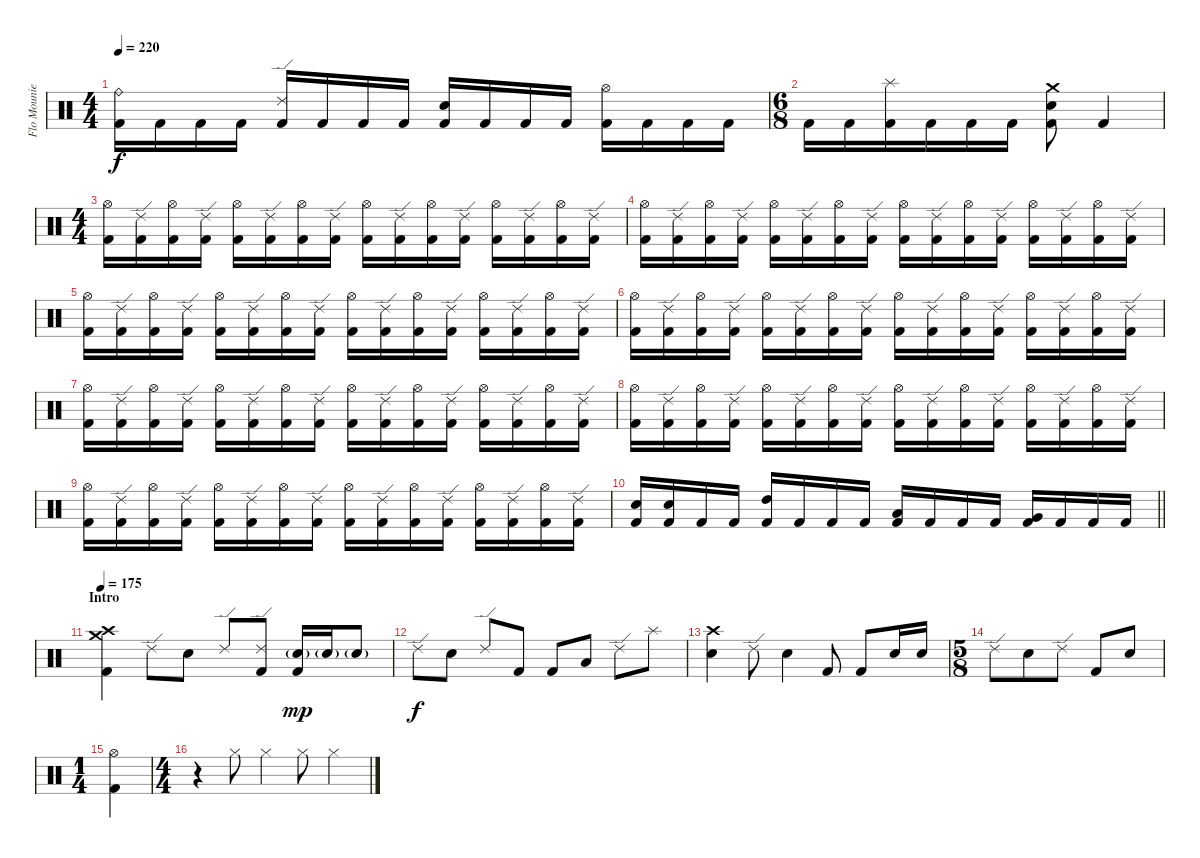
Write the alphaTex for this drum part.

\track ("Flo Mounier" "Flo Mounie") {instrument percussion}
\staff {score}
\articulation defaults
\ts (4 4)
\tempo 220
\clef neutral
\ks c
("Ride (bell)" "Kick (hit) 2").16{dy f} "Kick (hit) 2".16 "Kick (hit) 2".16 "Kick (hit) 2".16 ("Ride (edge) 2" "Kick (hit) 2").16 "Kick (hit) 2".16 "Kick (hit) 2".16 "Kick (hit) 2".16 ("Snare (hit) 2" "Kick (hit) 2").16 "Kick (hit) 2".16 "Kick (hit) 2".16 "Kick (hit) 2".16 ("Hi-Hat (open)" "Kick (hit) 2").16 "Kick (hit) 2".16 "Kick (hit) 2".16 "Kick (hit) 2".16 |
\ts (6 8)
"Kick (hit) 2".16 "Kick (hit) 2".16 ("Splash (hit)" "Kick (hit) 2").16 "Kick (hit) 2".16 "Kick (hit) 2".16 "Kick (hit) 2".16 ("Crash medium (hit)" "Snare (hit) 2" "Kick (hit) 2").8 "Kick (hit) 2".4 |
\ts (4 4)
("Hi-Hat (open)" "Kick (hit) 2").16 ("Ride (edge) 2" "Kick (hit) 2").16 ("Hi-Hat (open)" "Kick (hit) 2").16 ("Ride (edge) 2" "Kick (hit) 2").16 ("Hi-Hat (open)" "Kick (hit) 2").16 ("Ride (edge) 2" "Kick (hit) 2").16 ("Hi-Hat (open)" "Kick (hit) 2").16 ("Ride (edge) 2" "Kick (hit) 2").16 ("Hi-Hat (open)" "Kick (hit) 2").16 ("Ride (edge) 2" "Kick (hit) 2").16 ("Hi-Hat (open)" "Kick (hit) 2").16 ("Ride (edge) 2" "Kick (hit) 2").16 ("Hi-Hat (open)" "Kick (hit) 2").16 ("Ride (edge) 2" "Kick (hit) 2").16 ("Hi-Hat (open)" "Kick (hit) 2").16 ("Ride (edge) 2" "Kick (hit) 2").16 |
("Hi-Hat (open)" "Kick (hit) 2").16 ("Ride (edge) 2" "Kick (hit) 2").16 ("Hi-Hat (open)" "Kick (hit) 2").16 ("Ride (edge) 2" "Kick (hit) 2").16 ("Hi-Hat (open)" "Kick (hit) 2").16 ("Ride (edge) 2" "Kick (hit) 2").16 ("Hi-Hat (open)" "Kick (hit) 2").16 ("Ride (edge) 2" "Kick (hit) 2").16 ("Hi-Hat (open)" "Kick (hit) 2").16 ("Ride (edge) 2" "Kick (hit) 2").16 ("Hi-Hat (open)" "Kick (hit) 2").16 ("Ride (edge) 2" "Kick (hit) 2").16 ("Hi-Hat (open)" "Kick (hit) 2").16 ("Ride (edge) 2" "Kick (hit) 2").16 ("Hi-Hat (open)" "Kick (hit) 2").16 ("Ride (edge) 2" "Kick (hit) 2").16 |
("Hi-Hat (open)" "Kick (hit) 2").16 ("Ride (edge) 2" "Kick (hit) 2").16 ("Hi-Hat (open)" "Kick (hit) 2").16 ("Ride (edge) 2" "Kick (hit) 2").16 ("Hi-Hat (open)" "Kick (hit) 2").16 ("Ride (edge) 2" "Kick (hit) 2").16 ("Hi-Hat (open)" "Kick (hit) 2").16 ("Ride (edge) 2" "Kick (hit) 2").16 ("Hi-Hat (open)" "Kick (hit) 2").16 ("Ride (edge) 2" "Kick (hit) 2").16 ("Hi-Hat (open)" "Kick (hit) 2").16 ("Ride (edge) 2" "Kick (hit) 2").16 ("Hi-Hat (open)" "Kick (hit) 2").16 ("Ride (edge) 2" "Kick (hit) 2").16 ("Hi-Hat (open)" "Kick (hit) 2").16 ("Ride (edge) 2" "Kick (hit) 2").16 |
("Hi-Hat (open)" "Kick (hit) 2").16 ("Ride (edge) 2" "Kick (hit) 2").16 ("Hi-Hat (open)" "Kick (hit) 2").16 ("Ride (edge) 2" "Kick (hit) 2").16 ("Hi-Hat (open)" "Kick (hit) 2").16 ("Ride (edge) 2" "Kick (hit) 2").16 ("Hi-Hat (open)" "Kick (hit) 2").16 ("Ride (edge) 2" "Kick (hit) 2").16 ("Hi-Hat (open)" "Kick (hit) 2").16 ("Ride (edge) 2" "Kick (hit) 2").16 ("Hi-Hat (open)" "Kick (hit) 2").16 ("Ride (edge) 2" "Kick (hit) 2").16 ("Hi-Hat (open)" "Kick (hit) 2").16 ("Ride (edge) 2" "Kick (hit) 2").16 ("Hi-Hat (open)" "Kick (hit) 2").16 ("Ride (edge) 2" "Kick (hit) 2").16 |
("Hi-Hat (open)" "Kick (hit) 2").16 ("Ride (edge) 2" "Kick (hit) 2").16 ("Hi-Hat (open)" "Kick (hit) 2").16 ("Ride (edge) 2" "Kick (hit) 2").16 ("Hi-Hat (open)" "Kick (hit) 2").16 ("Ride (edge) 2" "Kick (hit) 2").16 ("Hi-Hat (open)" "Kick (hit) 2").16 ("Ride (edge) 2" "Kick (hit) 2").16 ("Hi-Hat (open)" "Kick (hit) 2").16 ("Ride (edge) 2" "Kick (hit) 2").16 ("Hi-Hat (open)" "Kick (hit) 2").16 ("Ride (edge) 2" "Kick (hit) 2").16 ("Hi-Hat (open)" "Kick (hit) 2").16 ("Ride (edge) 2" "Kick (hit) 2").16 ("Hi-Hat (open)" "Kick (hit) 2").16 ("Ride (edge) 2" "Kick (hit) 2").16 |
("Hi-Hat (open)" "Kick (hit) 2").16 ("Ride (edge) 2" "Kick (hit) 2").16 ("Hi-Hat (open)" "Kick (hit) 2").16 ("Ride (edge) 2" "Kick (hit) 2").16 ("Hi-Hat (open)" "Kick (hit) 2").16 ("Ride (edge) 2" "Kick (hit) 2").16 ("Hi-Hat (open)" "Kick (hit) 2").16 ("Ride (edge) 2" "Kick (hit) 2").16 ("Hi-Hat (open)" "Kick (hit) 2").16 ("Ride (edge) 2" "Kick (hit) 2").16 ("Hi-Hat (open)" "Kick (hit) 2").16 ("Ride (edge) 2" "Kick (hit) 2").16 ("Hi-Hat (open)" "Kick (hit) 2").16 ("Ride (edge) 2" "Kick (hit) 2").16 ("Hi-Hat (open)" "Kick (hit) 2").16 ("Ride (edge) 2" "Kick (hit) 2").16 |
("Hi-Hat (open)" "Kick (hit) 2").16 ("Ride (edge) 2" "Kick (hit) 2").16 ("Hi-Hat (open)" "Kick (hit) 2").16 ("Ride (edge) 2" "Kick (hit) 2").16 ("Hi-Hat (open)" "Kick (hit) 2").16 ("Ride (edge) 2" "Kick (hit) 2").16 ("Hi-Hat (open)" "Kick (hit) 2").16 ("Ride (edge) 2" "Kick (hit) 2").16 ("Hi-Hat (open)" "Kick (hit) 2").16 ("Ride (edge) 2" "Kick (hit) 2").16 ("Hi-Hat (open)" "Kick (hit) 2").16 ("Ride (edge) 2" "Kick (hit) 2").16 ("Hi-Hat (open)" "Kick (hit) 2").16 ("Ride (edge) 2" "Kick (hit) 2").16 ("Hi-Hat (open)" "Kick (hit) 2").16 ("Ride (edge) 2" "Kick (hit) 2").16 |
\barLineRight lightlight
("Snare (hit) 2" "Kick (hit) 2").16 ("Snare (hit) 2" "Kick (hit) 2").16 "Kick (hit) 2".16 "Kick (hit) 2".16 ("High Tom (hit)" "Kick (hit) 2").16 "Kick (hit) 2".16 "Kick (hit) 2".16 "Kick (hit) 2".16 ("Low Tom (hit)" "Kick (hit) 2").16 "Kick (hit) 2".16 "Kick (hit) 2".16 "Kick (hit) 2".16 ("Very Low Tom (hit)" "Kick (hit) 2").16 "Kick (hit) 2".16 "Kick (hit) 2".16 "Kick (hit) 2".16 |
\section ("" "Intro")
\tempo 175
("Crash medium (hit)" "Crash high (hit)" "Kick (hit) 2").4 "Ride (edge) 2".8 "Snare (hit) 2".8 "Ride (edge) 2".8 ("Ride (edge) 2" "Kick (hit) 2").8 ("Snare (hit) 2"{g} "Kick (hit) 2").16{dy mp} "Snare (hit) 2"{g}.16 "Snare (hit) 2"{g}.8 |
"Ride (edge) 2".8{dy f} "Snare (hit) 2".8 "Ride (edge) 2".8 "Kick (hit) 2".8 "Kick (hit) 2".8 "Low Tom (hit)".8 "Ride (edge) 2".8 "Splash (hit)".8 |
("Crash high (hit)" "Snare (hit) 2").4 "Ride (edge) 2".8 "Snare (hit) 2".4 "Kick (hit) 2".8 "Kick (hit) 2".8 "Snare (hit) 2".16 "Snare (hit) 2".16 |
\ts (5 8)
"Ride (edge) 2".8 "Snare (hit) 2".8 "Ride (edge) 2".8 "Kick (hit) 2".8 "Snare (hit) 2".8 |
\ts (1 4)
("Hi-Hat (open)" "Kick (hit) 2").4 |
\ts (4 4)
r.4 "Hi-Hat (closed)".8 "Hi-Hat (closed)".4 "Hi-Hat (closed)".8 "Hi-Hat (closed)".4
